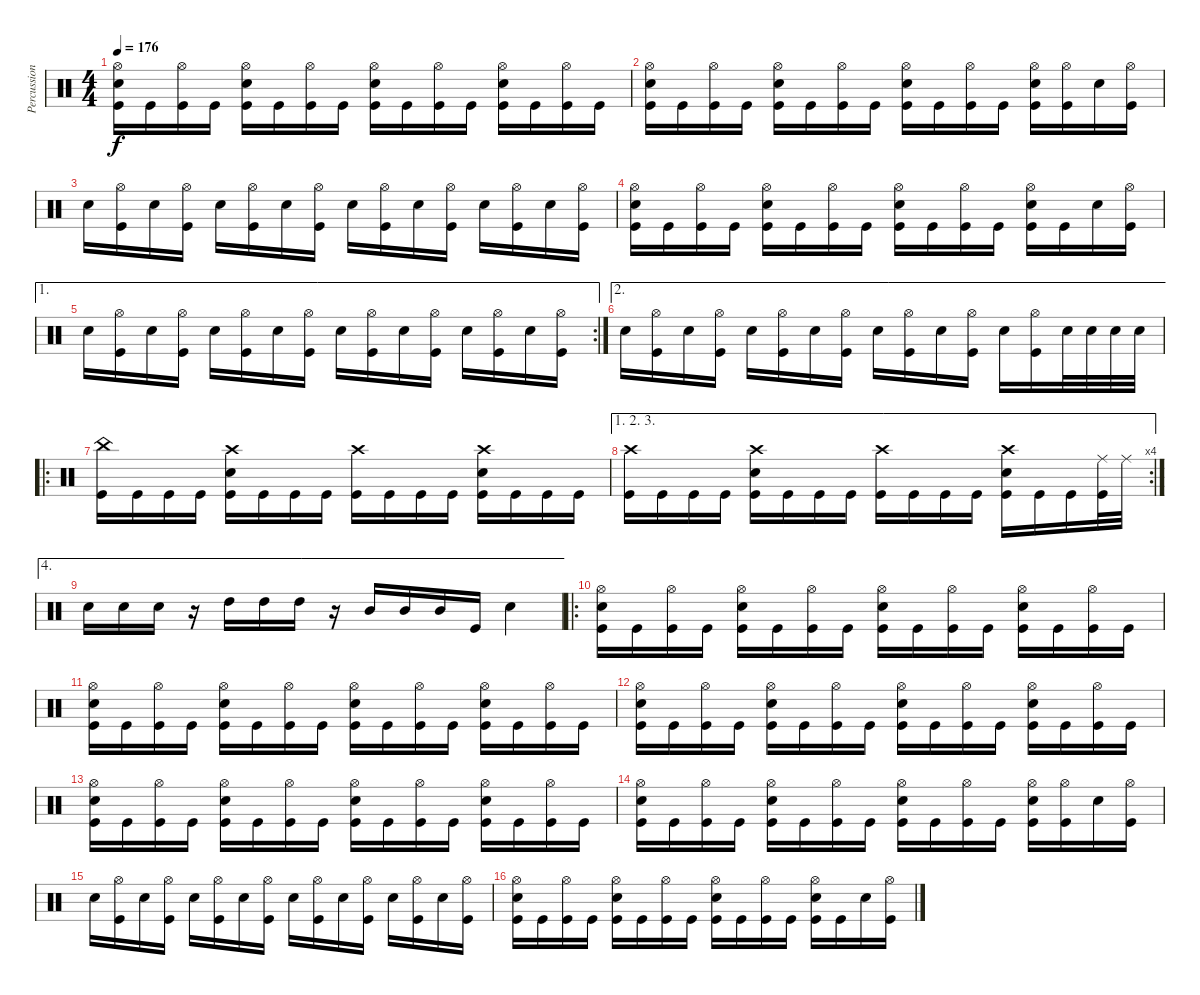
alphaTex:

\track ("Percussions" "Percussion") {instrument percussion}
\staff {score}
\articulation defaults
\ts (4 4)
\tempo 176
\clef neutral
\ks c
("Hi-Hat (open)" "Snare (hit) 2" "Kick (hit)").16{dy f} "Kick (hit)".16 ("Hi-Hat (open)" "Kick (hit)").16 "Kick (hit)".16 ("Hi-Hat (open)" "Snare (hit) 2" "Kick (hit)").16 "Kick (hit)".16 ("Hi-Hat (open)" "Kick (hit)").16 "Kick (hit)".16 ("Hi-Hat (open)" "Snare (hit) 2" "Kick (hit)").16 "Kick (hit)".16 ("Hi-Hat (open)" "Kick (hit)").16 "Kick (hit)".16 ("Hi-Hat (open)" "Snare (hit) 2" "Kick (hit)").16 "Kick (hit)".16 ("Hi-Hat (open)" "Kick (hit)").16 "Kick (hit)".16 |
("Hi-Hat (open)" "Snare (hit) 2" "Kick (hit)").16 "Kick (hit)".16 ("Hi-Hat (open)" "Kick (hit)").16 "Kick (hit)".16 ("Hi-Hat (open)" "Snare (hit) 2" "Kick (hit)").16 "Kick (hit)".16 ("Hi-Hat (open)" "Kick (hit)").16 "Kick (hit)".16 ("Hi-Hat (open)" "Snare (hit) 2" "Kick (hit)").16 "Kick (hit)".16 ("Hi-Hat (open)" "Kick (hit)").16 "Kick (hit)".16 ("Hi-Hat (open)" "Snare (hit) 2" "Kick (hit)").16 ("Hi-Hat (open)" "Kick (hit)").16 "Snare (hit) 2".16 ("Hi-Hat (open)" "Kick (hit)").16 |
"Snare (hit) 2".16 ("Hi-Hat (open)" "Kick (hit)").16 "Snare (hit) 2".16 ("Hi-Hat (open)" "Kick (hit)").16 "Snare (hit) 2".16 ("Hi-Hat (open)" "Kick (hit)").16 "Snare (hit) 2".16 ("Hi-Hat (open)" "Kick (hit)").16 "Snare (hit) 2".16 ("Hi-Hat (open)" "Kick (hit)").16 "Snare (hit) 2".16 ("Hi-Hat (open)" "Kick (hit)").16 "Snare (hit) 2".16 ("Hi-Hat (open)" "Kick (hit)").16 "Snare (hit) 2".16 ("Hi-Hat (open)" "Kick (hit)").16 |
("Hi-Hat (open)" "Snare (hit) 2" "Kick (hit)").16 "Kick (hit)".16 ("Hi-Hat (open)" "Kick (hit)").16 "Kick (hit)".16 ("Hi-Hat (open)" "Snare (hit) 2" "Kick (hit)").16 "Kick (hit)".16 ("Hi-Hat (open)" "Kick (hit)").16 "Kick (hit)".16 ("Hi-Hat (open)" "Snare (hit) 2" "Kick (hit)").16 "Kick (hit)".16 ("Hi-Hat (open)" "Kick (hit)").16 "Kick (hit)".16 ("Hi-Hat (open)" "Snare (hit) 2" "Kick (hit)").16 "Kick (hit)".16 "Snare (hit) 2".16 ("Hi-Hat (open)" "Kick (hit)").16 |
\ae 1
\rc 2 "Snare (hit) 2".16
("Hi-Hat (open)" "Kick (hit)").16 "Snare (hit) 2".16 ("Hi-Hat (open)" "Kick (hit)").16 "Snare (hit) 2".16 ("Hi-Hat (open)" "Kick (hit)").16 "Snare (hit) 2".16 ("Hi-Hat (open)" "Kick (hit)").16 "Snare (hit) 2".16 ("Hi-Hat (open)" "Kick (hit)").16 "Snare (hit) 2".16 ("Hi-Hat (open)" "Kick (hit)").16 "Snare (hit) 2".16 ("Hi-Hat (open)" "Kick (hit)").16 "Snare (hit) 2".16 ("Hi-Hat (open)" "Kick (hit)").16 |
\ae 2 "Snare (hit) 2".16
("Hi-Hat (open)" "Kick (hit)").16 "Snare (hit) 2".16 ("Hi-Hat (open)" "Kick (hit)").16 "Snare (hit) 2".16 ("Hi-Hat (open)" "Kick (hit)").16 "Snare (hit) 2".16 ("Hi-Hat (open)" "Kick (hit)").16 "Snare (hit) 2".16 ("Hi-Hat (open)" "Kick (hit)").16 "Snare (hit) 2".16 ("Hi-Hat (open)" "Kick (hit)").16 "Snare (hit) 2".16 ("Hi-Hat (open)" "Kick (hit)").16 "Snare (hit) 2".32 "Snare (hit) 2".32 "Snare (hit) 2".32 "Snare (hit) 2".32 |
\ro
("China (hit)" "Kick (hit)").16 "Kick (hit)".16 "Kick (hit)".16 "Kick (hit)".16 ("Crash high (hit)" "Snare (hit) 2" "Kick (hit)").16 "Kick (hit)".16 "Kick (hit)".16 "Kick (hit)".16 ("Crash high (hit)" "Kick (hit)").16 "Kick (hit)".16 "Kick (hit)".16 "Kick (hit)".16 ("Crash high (hit)" "Snare (hit) 2" "Kick (hit)").16 "Kick (hit)".16 "Kick (hit)".16 "Kick (hit)".16 |
\ae (1 2 3)
\rc 4
("Crash high (hit)" "Kick (hit)").16 "Kick (hit)".16 "Kick (hit)".16 "Kick (hit)".16 ("Crash high (hit)" "Snare (hit) 2" "Kick (hit)").16 "Kick (hit)".16 "Kick (hit)".16 "Kick (hit)".16 ("Crash high (hit)" "Kick (hit)").16 "Kick (hit)".16 "Kick (hit)".16 "Kick (hit)".16 ("Crash high (hit)" "Snare (hit) 2" "Kick (hit)").16 "Kick (hit)".16 "Kick (hit)".16 ("Ride (middle)" "Kick (hit)").32 "Ride (middle)".32 |
\ae 4 "Snare (hit) 2".16 "Snare (hit) 2".16 "Snare (hit) 2".16
r.16 "High Tom (hit)".16 "High Tom (hit)".16 "High Tom (hit)".16 r.16 "Mid Tom (hit)".16 "Mid Tom (hit)".16 "Mid Tom (hit)".16 "Kick (hit)".16 "Snare (hit) 2".4 |
\ro
("Hi-Hat (open)" "Snare (hit) 2" "Kick (hit)").16 "Kick (hit)".16 ("Hi-Hat (open)" "Kick (hit)").16 "Kick (hit)".16 ("Hi-Hat (open)" "Snare (hit) 2" "Kick (hit)").16 "Kick (hit)".16 ("Hi-Hat (open)" "Kick (hit)").16 "Kick (hit)".16 ("Hi-Hat (open)" "Snare (hit) 2" "Kick (hit)").16 "Kick (hit)".16 ("Hi-Hat (open)" "Kick (hit)").16 "Kick (hit)".16 ("Hi-Hat (open)" "Snare (hit) 2" "Kick (hit)").16 "Kick (hit)".16 ("Hi-Hat (open)" "Kick (hit)").16 "Kick (hit)".16 |
("Hi-Hat (open)" "Snare (hit) 2" "Kick (hit)").16 "Kick (hit)".16 ("Hi-Hat (open)" "Kick (hit)").16 "Kick (hit)".16 ("Hi-Hat (open)" "Snare (hit) 2" "Kick (hit)").16 "Kick (hit)".16 ("Hi-Hat (open)" "Kick (hit)").16 "Kick (hit)".16 ("Hi-Hat (open)" "Snare (hit) 2" "Kick (hit)").16 "Kick (hit)".16 ("Hi-Hat (open)" "Kick (hit)").16 "Kick (hit)".16 ("Hi-Hat (open)" "Snare (hit) 2" "Kick (hit)").16 "Kick (hit)".16 ("Hi-Hat (open)" "Kick (hit)").16 "Kick (hit)".16 |
("Hi-Hat (open)" "Snare (hit) 2" "Kick (hit)").16 "Kick (hit)".16 ("Hi-Hat (open)" "Kick (hit)").16 "Kick (hit)".16 ("Hi-Hat (open)" "Snare (hit) 2" "Kick (hit)").16 "Kick (hit)".16 ("Hi-Hat (open)" "Kick (hit)").16 "Kick (hit)".16 ("Hi-Hat (open)" "Snare (hit) 2" "Kick (hit)").16 "Kick (hit)".16 ("Hi-Hat (open)" "Kick (hit)").16 "Kick (hit)".16 ("Hi-Hat (open)" "Snare (hit) 2" "Kick (hit)").16 "Kick (hit)".16 ("Hi-Hat (open)" "Kick (hit)").16 "Kick (hit)".16 |
("Hi-Hat (open)" "Snare (hit) 2" "Kick (hit)").16 "Kick (hit)".16 ("Hi-Hat (open)" "Kick (hit)").16 "Kick (hit)".16 ("Hi-Hat (open)" "Snare (hit) 2" "Kick (hit)").16 "Kick (hit)".16 ("Hi-Hat (open)" "Kick (hit)").16 "Kick (hit)".16 ("Hi-Hat (open)" "Snare (hit) 2" "Kick (hit)").16 "Kick (hit)".16 ("Hi-Hat (open)" "Kick (hit)").16 "Kick (hit)".16 ("Hi-Hat (open)" "Snare (hit) 2" "Kick (hit)").16 "Kick (hit)".16 ("Hi-Hat (open)" "Kick (hit)").16 "Kick (hit)".16 |
("Hi-Hat (open)" "Snare (hit) 2" "Kick (hit)").16 "Kick (hit)".16 ("Hi-Hat (open)" "Kick (hit)").16 "Kick (hit)".16 ("Hi-Hat (open)" "Snare (hit) 2" "Kick (hit)").16 "Kick (hit)".16 ("Hi-Hat (open)" "Kick (hit)").16 "Kick (hit)".16 ("Hi-Hat (open)" "Snare (hit) 2" "Kick (hit)").16 "Kick (hit)".16 ("Hi-Hat (open)" "Kick (hit)").16 "Kick (hit)".16 ("Hi-Hat (open)" "Snare (hit) 2" "Kick (hit)").16 ("Hi-Hat (open)" "Kick (hit)").16 "Snare (hit) 2".16 ("Hi-Hat (open)" "Kick (hit)").16 |
"Snare (hit) 2".16 ("Hi-Hat (open)" "Kick (hit)").16 "Snare (hit) 2".16 ("Hi-Hat (open)" "Kick (hit)").16 "Snare (hit) 2".16 ("Hi-Hat (open)" "Kick (hit)").16 "Snare (hit) 2".16 ("Hi-Hat (open)" "Kick (hit)").16 "Snare (hit) 2".16 ("Hi-Hat (open)" "Kick (hit)").16 "Snare (hit) 2".16 ("Hi-Hat (open)" "Kick (hit)").16 "Snare (hit) 2".16 ("Hi-Hat (open)" "Kick (hit)").16 "Snare (hit) 2".16 ("Hi-Hat (open)" "Kick (hit)").16 |
("Hi-Hat (open)" "Snare (hit) 2" "Kick (hit)").16 "Kick (hit)".16 ("Hi-Hat (open)" "Kick (hit)").16 "Kick (hit)".16 ("Hi-Hat (open)" "Snare (hit) 2" "Kick (hit)").16 "Kick (hit)".16 ("Hi-Hat (open)" "Kick (hit)").16 "Kick (hit)".16 ("Hi-Hat (open)" "Snare (hit) 2" "Kick (hit)").16 "Kick (hit)".16 ("Hi-Hat (open)" "Kick (hit)").16 "Kick (hit)".16 ("Hi-Hat (open)" "Snare (hit) 2" "Kick (hit)").16 "Kick (hit)".16 "Snare (hit) 2".16 ("Hi-Hat (open)" "Kick (hit)").16
